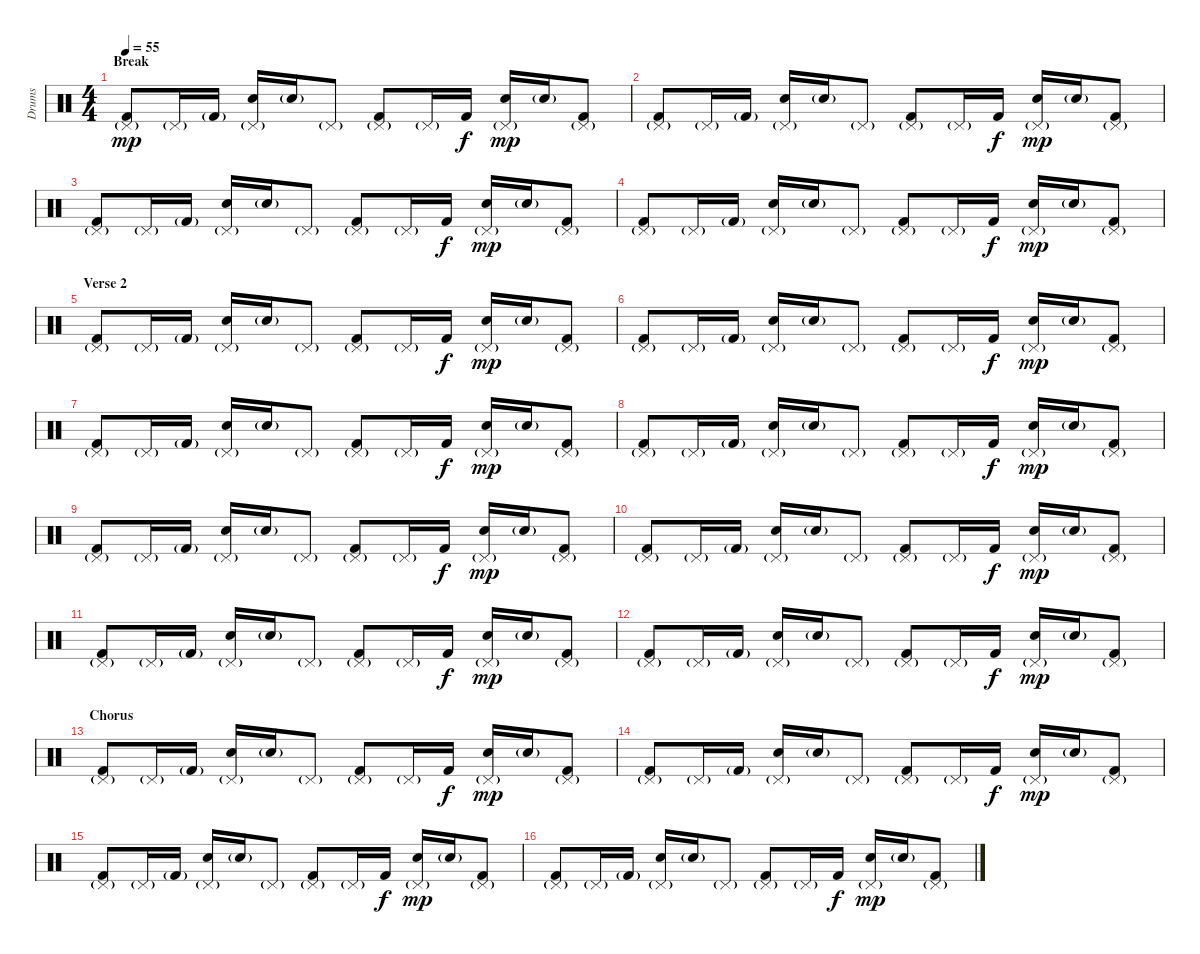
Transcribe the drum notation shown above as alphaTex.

\track ("Drums" "Drums") {instrument percussion}
\staff {score}
\articulation defaults
\ts (4 4)
\section ("" "Break")
\tempo 55
\clef neutral
\ks c
("Pedal Hi-Hat (hit)"{g} "Kick (hit) 2").8{dy mp} "Pedal Hi-Hat (hit)"{g}.16 "Kick (hit) 2"{g}.16 ("Pedal Hi-Hat (hit)"{g} "Electric Snare (hit)").16 "Electric Snare (hit)"{g}.16 "Pedal Hi-Hat (hit)"{g}.8 ("Pedal Hi-Hat (hit)"{g} "Kick (hit) 2").8 "Pedal Hi-Hat (hit)"{g}.16 "Kick (hit) 2".16{dy f} ("Pedal Hi-Hat (hit)"{g} "Electric Snare (hit)").16{dy mp} "Electric Snare (hit)"{g}.16 ("Pedal Hi-Hat (hit)"{g} "Kick (hit) 2").8 |
("Pedal Hi-Hat (hit)"{g} "Kick (hit) 2").8 "Pedal Hi-Hat (hit)"{g}.16 "Kick (hit) 2"{g}.16 ("Pedal Hi-Hat (hit)"{g} "Electric Snare (hit)").16 "Electric Snare (hit)"{g}.16 "Pedal Hi-Hat (hit)"{g}.8 ("Pedal Hi-Hat (hit)"{g} "Kick (hit) 2").8 "Pedal Hi-Hat (hit)"{g}.16 "Kick (hit) 2".16{dy f} ("Pedal Hi-Hat (hit)"{g} "Electric Snare (hit)").16{dy mp} "Electric Snare (hit)"{g}.16 ("Pedal Hi-Hat (hit)"{g} "Kick (hit) 2").8 |
("Pedal Hi-Hat (hit)"{g} "Kick (hit) 2").8 "Pedal Hi-Hat (hit)"{g}.16 "Kick (hit) 2"{g}.16 ("Pedal Hi-Hat (hit)"{g} "Electric Snare (hit)").16 "Electric Snare (hit)"{g}.16 "Pedal Hi-Hat (hit)"{g}.8 ("Pedal Hi-Hat (hit)"{g} "Kick (hit) 2").8 "Pedal Hi-Hat (hit)"{g}.16 "Kick (hit) 2".16{dy f} ("Pedal Hi-Hat (hit)"{g} "Electric Snare (hit)").16{dy mp} "Electric Snare (hit)"{g}.16 ("Pedal Hi-Hat (hit)"{g} "Kick (hit) 2").8 |
("Pedal Hi-Hat (hit)"{g} "Kick (hit) 2").8 "Pedal Hi-Hat (hit)"{g}.16 "Kick (hit) 2"{g}.16 ("Pedal Hi-Hat (hit)"{g} "Electric Snare (hit)").16 "Electric Snare (hit)"{g}.16 "Pedal Hi-Hat (hit)"{g}.8 ("Pedal Hi-Hat (hit)"{g} "Kick (hit) 2").8 "Pedal Hi-Hat (hit)"{g}.16 "Kick (hit) 2".16{dy f} ("Pedal Hi-Hat (hit)"{g} "Electric Snare (hit)").16{dy mp} "Electric Snare (hit)"{g}.16 ("Pedal Hi-Hat (hit)"{g} "Kick (hit) 2").8 |
\section ("" "Verse 2")
("Pedal Hi-Hat (hit)"{g} "Kick (hit) 2").8 "Pedal Hi-Hat (hit)"{g}.16 "Kick (hit) 2"{g}.16 ("Pedal Hi-Hat (hit)"{g} "Electric Snare (hit)").16 "Electric Snare (hit)"{g}.16 "Pedal Hi-Hat (hit)"{g}.8 ("Pedal Hi-Hat (hit)"{g} "Kick (hit) 2").8 "Pedal Hi-Hat (hit)"{g}.16 "Kick (hit) 2".16{dy f} ("Pedal Hi-Hat (hit)"{g} "Electric Snare (hit)").16{dy mp} "Electric Snare (hit)"{g}.16 ("Pedal Hi-Hat (hit)"{g} "Kick (hit) 2").8 |
("Pedal Hi-Hat (hit)"{g} "Kick (hit) 2").8 "Pedal Hi-Hat (hit)"{g}.16 "Kick (hit) 2"{g}.16 ("Pedal Hi-Hat (hit)"{g} "Electric Snare (hit)").16 "Electric Snare (hit)"{g}.16 "Pedal Hi-Hat (hit)"{g}.8 ("Pedal Hi-Hat (hit)"{g} "Kick (hit) 2").8 "Pedal Hi-Hat (hit)"{g}.16 "Kick (hit) 2".16{dy f} ("Pedal Hi-Hat (hit)"{g} "Electric Snare (hit)").16{dy mp} "Electric Snare (hit)"{g}.16 ("Pedal Hi-Hat (hit)"{g} "Kick (hit) 2").8 |
("Pedal Hi-Hat (hit)"{g} "Kick (hit) 2").8 "Pedal Hi-Hat (hit)"{g}.16 "Kick (hit) 2"{g}.16 ("Pedal Hi-Hat (hit)"{g} "Electric Snare (hit)").16 "Electric Snare (hit)"{g}.16 "Pedal Hi-Hat (hit)"{g}.8 ("Pedal Hi-Hat (hit)"{g} "Kick (hit) 2").8 "Pedal Hi-Hat (hit)"{g}.16 "Kick (hit) 2".16{dy f} ("Pedal Hi-Hat (hit)"{g} "Electric Snare (hit)").16{dy mp} "Electric Snare (hit)"{g}.16 ("Pedal Hi-Hat (hit)"{g} "Kick (hit) 2").8 |
("Pedal Hi-Hat (hit)"{g} "Kick (hit) 2").8 "Pedal Hi-Hat (hit)"{g}.16 "Kick (hit) 2"{g}.16 ("Pedal Hi-Hat (hit)"{g} "Electric Snare (hit)").16 "Electric Snare (hit)"{g}.16 "Pedal Hi-Hat (hit)"{g}.8 ("Pedal Hi-Hat (hit)"{g} "Kick (hit) 2").8 "Pedal Hi-Hat (hit)"{g}.16 "Kick (hit) 2".16{dy f} ("Pedal Hi-Hat (hit)"{g} "Electric Snare (hit)").16{dy mp} "Electric Snare (hit)"{g}.16 ("Pedal Hi-Hat (hit)"{g} "Kick (hit) 2").8 |
("Pedal Hi-Hat (hit)"{g} "Kick (hit) 2").8 "Pedal Hi-Hat (hit)"{g}.16 "Kick (hit) 2"{g}.16 ("Pedal Hi-Hat (hit)"{g} "Electric Snare (hit)").16 "Electric Snare (hit)"{g}.16 "Pedal Hi-Hat (hit)"{g}.8 ("Pedal Hi-Hat (hit)"{g} "Kick (hit) 2").8 "Pedal Hi-Hat (hit)"{g}.16 "Kick (hit) 2".16{dy f} ("Pedal Hi-Hat (hit)"{g} "Electric Snare (hit)").16{dy mp} "Electric Snare (hit)"{g}.16 ("Pedal Hi-Hat (hit)"{g} "Kick (hit) 2").8 |
("Pedal Hi-Hat (hit)"{g} "Kick (hit) 2").8 "Pedal Hi-Hat (hit)"{g}.16 "Kick (hit) 2"{g}.16 ("Pedal Hi-Hat (hit)"{g} "Electric Snare (hit)").16 "Electric Snare (hit)"{g}.16 "Pedal Hi-Hat (hit)"{g}.8 ("Pedal Hi-Hat (hit)"{g} "Kick (hit) 2").8 "Pedal Hi-Hat (hit)"{g}.16 "Kick (hit) 2".16{dy f} ("Pedal Hi-Hat (hit)"{g} "Electric Snare (hit)").16{dy mp} "Electric Snare (hit)"{g}.16 ("Pedal Hi-Hat (hit)"{g} "Kick (hit) 2").8 |
("Pedal Hi-Hat (hit)"{g} "Kick (hit) 2").8 "Pedal Hi-Hat (hit)"{g}.16 "Kick (hit) 2"{g}.16 ("Pedal Hi-Hat (hit)"{g} "Electric Snare (hit)").16 "Electric Snare (hit)"{g}.16 "Pedal Hi-Hat (hit)"{g}.8 ("Pedal Hi-Hat (hit)"{g} "Kick (hit) 2").8 "Pedal Hi-Hat (hit)"{g}.16 "Kick (hit) 2".16{dy f} ("Pedal Hi-Hat (hit)"{g} "Electric Snare (hit)").16{dy mp} "Electric Snare (hit)"{g}.16 ("Pedal Hi-Hat (hit)"{g} "Kick (hit) 2").8 |
("Pedal Hi-Hat (hit)"{g} "Kick (hit) 2").8 "Pedal Hi-Hat (hit)"{g}.16 "Kick (hit) 2"{g}.16 ("Pedal Hi-Hat (hit)"{g} "Electric Snare (hit)").16 "Electric Snare (hit)"{g}.16 "Pedal Hi-Hat (hit)"{g}.8 ("Pedal Hi-Hat (hit)"{g} "Kick (hit) 2").8 "Pedal Hi-Hat (hit)"{g}.16 "Kick (hit) 2".16{dy f} ("Pedal Hi-Hat (hit)"{g} "Electric Snare (hit)").16{dy mp} "Electric Snare (hit)"{g}.16 ("Pedal Hi-Hat (hit)"{g} "Kick (hit) 2").8 |
\section ("" "Chorus")
("Pedal Hi-Hat (hit)"{g} "Kick (hit) 2").8 "Pedal Hi-Hat (hit)"{g}.16 "Kick (hit) 2"{g}.16 ("Pedal Hi-Hat (hit)"{g} "Electric Snare (hit)").16 "Electric Snare (hit)"{g}.16 "Pedal Hi-Hat (hit)"{g}.8 ("Pedal Hi-Hat (hit)"{g} "Kick (hit) 2").8 "Pedal Hi-Hat (hit)"{g}.16 "Kick (hit) 2".16{dy f} ("Pedal Hi-Hat (hit)"{g} "Electric Snare (hit)").16{dy mp} "Electric Snare (hit)"{g}.16 ("Pedal Hi-Hat (hit)"{g} "Kick (hit) 2").8 |
("Pedal Hi-Hat (hit)"{g} "Kick (hit) 2").8 "Pedal Hi-Hat (hit)"{g}.16 "Kick (hit) 2"{g}.16 ("Pedal Hi-Hat (hit)"{g} "Electric Snare (hit)").16 "Electric Snare (hit)"{g}.16 "Pedal Hi-Hat (hit)"{g}.8 ("Pedal Hi-Hat (hit)"{g} "Kick (hit) 2").8 "Pedal Hi-Hat (hit)"{g}.16 "Kick (hit) 2".16{dy f} ("Pedal Hi-Hat (hit)"{g} "Electric Snare (hit)").16{dy mp} "Electric Snare (hit)"{g}.16 ("Pedal Hi-Hat (hit)"{g} "Kick (hit) 2").8 |
("Pedal Hi-Hat (hit)"{g} "Kick (hit) 2").8 "Pedal Hi-Hat (hit)"{g}.16 "Kick (hit) 2"{g}.16 ("Pedal Hi-Hat (hit)"{g} "Electric Snare (hit)").16 "Electric Snare (hit)"{g}.16 "Pedal Hi-Hat (hit)"{g}.8 ("Pedal Hi-Hat (hit)"{g} "Kick (hit) 2").8 "Pedal Hi-Hat (hit)"{g}.16 "Kick (hit) 2".16{dy f} ("Pedal Hi-Hat (hit)"{g} "Electric Snare (hit)").16{dy mp} "Electric Snare (hit)"{g}.16 ("Pedal Hi-Hat (hit)"{g} "Kick (hit) 2").8 |
("Pedal Hi-Hat (hit)"{g} "Kick (hit) 2").8 "Pedal Hi-Hat (hit)"{g}.16 "Kick (hit) 2"{g}.16 ("Pedal Hi-Hat (hit)"{g} "Electric Snare (hit)").16 "Electric Snare (hit)"{g}.16 "Pedal Hi-Hat (hit)"{g}.8 ("Pedal Hi-Hat (hit)"{g} "Kick (hit) 2").8 "Pedal Hi-Hat (hit)"{g}.16 "Kick (hit) 2".16{dy f} ("Pedal Hi-Hat (hit)"{g} "Electric Snare (hit)").16{dy mp} "Electric Snare (hit)"{g}.16 ("Pedal Hi-Hat (hit)"{g} "Kick (hit) 2").8
